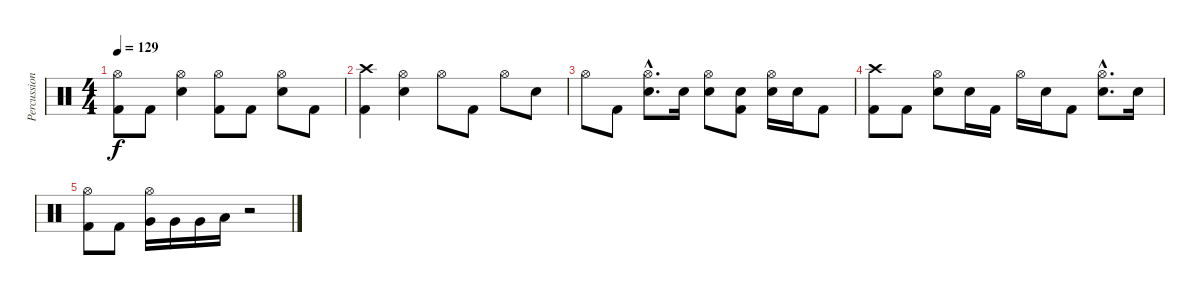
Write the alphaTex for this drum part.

\track ("Percussions" "Percussion") {instrument percussion}
\staff {score}
\articulation defaults
\ts (4 4)
\tempo 129
\clef neutral
\ks c
("Hi-Hat (open)" "Kick (hit) 2").8{dy f} "Kick (hit) 2".8 ("Hi-Hat (open)" "Electric Snare (hit)").4 ("Hi-Hat (open)" "Kick (hit) 2").8 "Kick (hit) 2".8 ("Hi-Hat (open)" "Electric Snare (hit)").8 "Kick (hit) 2".8 |
("Crash high (hit)" "Kick (hit) 2").4 ("Hi-Hat (open)" "Electric Snare (hit)").4 "Hi-Hat (open)".8 "Kick (hit) 2".8 "Hi-Hat (open)".8 "Electric Snare (hit)".8 |
"Hi-Hat (open)".8 "Kick (hit) 2".8 ("Hi-Hat (open)"{hac} "Electric Snare (hit)"{hac}).8{d} "Electric Snare (hit)".16 ("Hi-Hat (open)" "Electric Snare (hit)").8 ("Electric Snare (hit)" "Kick (hit) 2").8 ("Hi-Hat (open)" "Electric Snare (hit)").16 "Electric Snare (hit)".16 "Kick (hit) 2".8 |
("Crash high (hit)" "Kick (hit) 2").8 "Kick (hit) 2".8 ("Hi-Hat (open)" "Electric Snare (hit)").8 "Electric Snare (hit)".16 "Kick (hit) 2".16 "Hi-Hat (open)".16 "Electric Snare (hit)".16 "Kick (hit) 2".8 ("Hi-Hat (open)"{hac} "Electric Snare (hit)"{hac}).8{d} "Electric Snare (hit)".16 |
("Hi-Hat (open)" "Kick (hit) 2").8 "Kick (hit) 2".8 ("Hi-Hat (open)" "Very Low Tom (hit)").16 "Very Low Tom (hit)".16 "Very Low Tom (hit)".16 "Low Floor Tom (hit)".16 r.2
